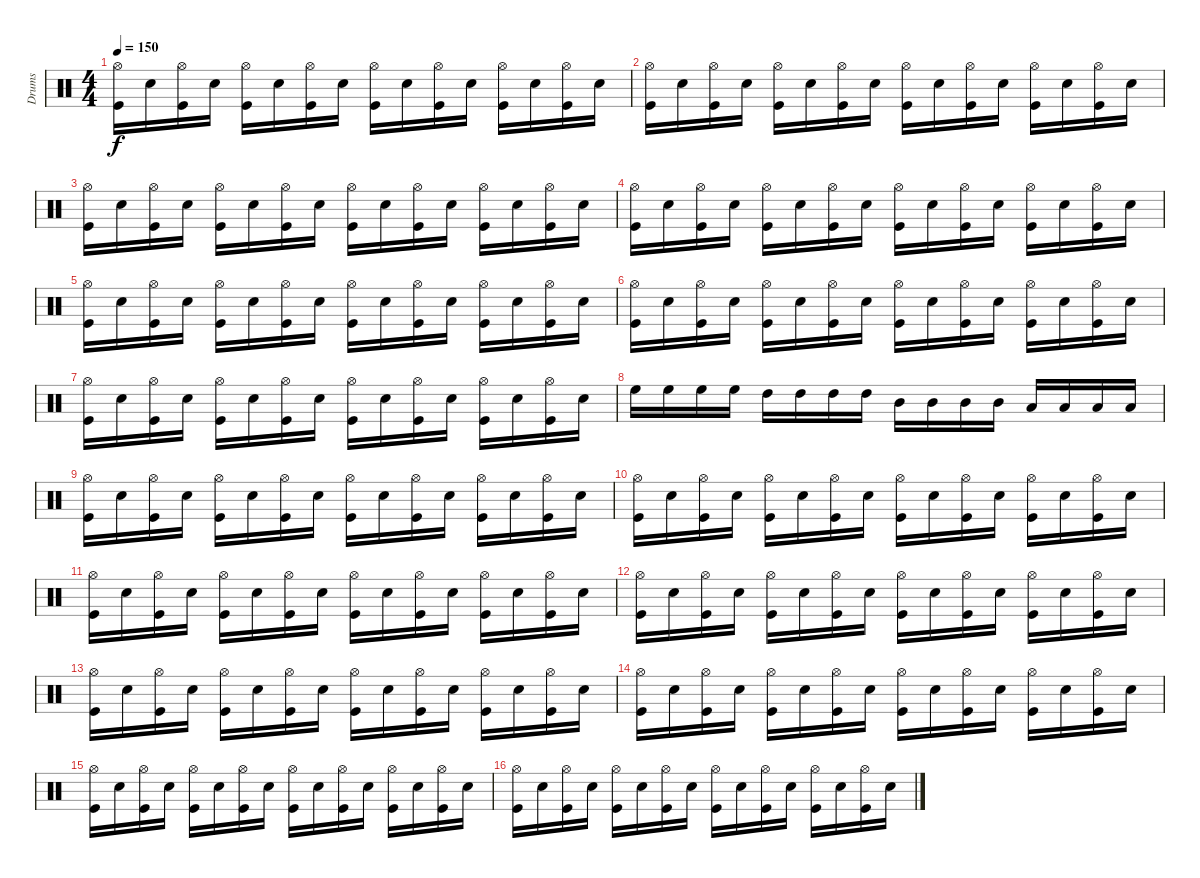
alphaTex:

\track ("Drums" "Drums") {instrument percussion}
\staff {score}
\articulation defaults
\ts (4 4)
\tempo 150
\clef neutral
\ks c
("Hi-Hat (open)" "Kick (hit)").16{dy f} "Snare (hit) 2".16 ("Hi-Hat (open)" "Kick (hit)").16 "Snare (hit) 2".16 ("Hi-Hat (open)" "Kick (hit)").16 "Snare (hit) 2".16 ("Hi-Hat (open)" "Kick (hit)").16 "Snare (hit) 2".16 ("Hi-Hat (open)" "Kick (hit)").16 "Snare (hit) 2".16 ("Hi-Hat (open)" "Kick (hit)").16 "Snare (hit) 2".16 ("Hi-Hat (open)" "Kick (hit)").16 "Snare (hit) 2".16 ("Hi-Hat (open)" "Kick (hit)").16 "Snare (hit) 2".16 |
("Hi-Hat (open)" "Kick (hit)").16 "Snare (hit) 2".16 ("Hi-Hat (open)" "Kick (hit)").16 "Snare (hit) 2".16 ("Hi-Hat (open)" "Kick (hit)").16 "Snare (hit) 2".16 ("Hi-Hat (open)" "Kick (hit)").16 "Snare (hit) 2".16 ("Hi-Hat (open)" "Kick (hit)").16 "Snare (hit) 2".16 ("Hi-Hat (open)" "Kick (hit)").16 "Snare (hit) 2".16 ("Hi-Hat (open)" "Kick (hit)").16 "Snare (hit) 2".16 ("Hi-Hat (open)" "Kick (hit)").16 "Snare (hit) 2".16 |
("Hi-Hat (open)" "Kick (hit)").16 "Snare (hit) 2".16 ("Hi-Hat (open)" "Kick (hit)").16 "Snare (hit) 2".16 ("Hi-Hat (open)" "Kick (hit)").16 "Snare (hit) 2".16 ("Hi-Hat (open)" "Kick (hit)").16 "Snare (hit) 2".16 ("Hi-Hat (open)" "Kick (hit)").16 "Snare (hit) 2".16 ("Hi-Hat (open)" "Kick (hit)").16 "Snare (hit) 2".16 ("Hi-Hat (open)" "Kick (hit)").16 "Snare (hit) 2".16 ("Hi-Hat (open)" "Kick (hit)").16 "Snare (hit) 2".16 |
("Hi-Hat (open)" "Kick (hit)").16 "Snare (hit) 2".16 ("Hi-Hat (open)" "Kick (hit)").16 "Snare (hit) 2".16 ("Hi-Hat (open)" "Kick (hit)").16 "Snare (hit) 2".16 ("Hi-Hat (open)" "Kick (hit)").16 "Snare (hit) 2".16 ("Hi-Hat (open)" "Kick (hit)").16 "Snare (hit) 2".16 ("Hi-Hat (open)" "Kick (hit)").16 "Snare (hit) 2".16 ("Hi-Hat (open)" "Kick (hit)").16 "Snare (hit) 2".16 ("Hi-Hat (open)" "Kick (hit)").16 "Snare (hit) 2".16 |
("Hi-Hat (open)" "Kick (hit)").16 "Snare (hit) 2".16 ("Hi-Hat (open)" "Kick (hit)").16 "Snare (hit) 2".16 ("Hi-Hat (open)" "Kick (hit)").16 "Snare (hit) 2".16 ("Hi-Hat (open)" "Kick (hit)").16 "Snare (hit) 2".16 ("Hi-Hat (open)" "Kick (hit)").16 "Snare (hit) 2".16 ("Hi-Hat (open)" "Kick (hit)").16 "Snare (hit) 2".16 ("Hi-Hat (open)" "Kick (hit)").16 "Snare (hit) 2".16 ("Hi-Hat (open)" "Kick (hit)").16 "Snare (hit) 2".16 |
("Hi-Hat (open)" "Kick (hit)").16 "Snare (hit) 2".16 ("Hi-Hat (open)" "Kick (hit)").16 "Snare (hit) 2".16 ("Hi-Hat (open)" "Kick (hit)").16 "Snare (hit) 2".16 ("Hi-Hat (open)" "Kick (hit)").16 "Snare (hit) 2".16 ("Hi-Hat (open)" "Kick (hit)").16 "Snare (hit) 2".16 ("Hi-Hat (open)" "Kick (hit)").16 "Snare (hit) 2".16 ("Hi-Hat (open)" "Kick (hit)").16 "Snare (hit) 2".16 ("Hi-Hat (open)" "Kick (hit)").16 "Snare (hit) 2".16 |
("Hi-Hat (open)" "Kick (hit)").16 "Snare (hit) 2".16 ("Hi-Hat (open)" "Kick (hit)").16 "Snare (hit) 2".16 ("Hi-Hat (open)" "Kick (hit)").16 "Snare (hit) 2".16 ("Hi-Hat (open)" "Kick (hit)").16 "Snare (hit) 2".16 ("Hi-Hat (open)" "Kick (hit)").16 "Snare (hit) 2".16 ("Hi-Hat (open)" "Kick (hit)").16 "Snare (hit) 2".16 ("Hi-Hat (open)" "Kick (hit)").16 "Snare (hit) 2".16 ("Hi-Hat (open)" "Kick (hit)").16 "Snare (hit) 2".16 |
"High Floor Tom (hit)".16 "High Floor Tom (hit)".16 "High Floor Tom (hit)".16 "High Floor Tom (hit)".16 "High Tom (hit)".16 "High Tom (hit)".16 "High Tom (hit)".16 "High Tom (hit)".16 "Mid Tom (hit)".16 "Mid Tom (hit)".16 "Mid Tom (hit)".16 "Mid Tom (hit)".16 "Low Tom (hit)".16 "Low Tom (hit)".16 "Low Tom (hit)".16 "Low Tom (hit)".16 |
("Hi-Hat (open)" "Kick (hit)").16 "Snare (hit) 2".16 ("Hi-Hat (open)" "Kick (hit)").16 "Snare (hit) 2".16 ("Hi-Hat (open)" "Kick (hit)").16 "Snare (hit) 2".16 ("Hi-Hat (open)" "Kick (hit)").16 "Snare (hit) 2".16 ("Hi-Hat (open)" "Kick (hit)").16 "Snare (hit) 2".16 ("Hi-Hat (open)" "Kick (hit)").16 "Snare (hit) 2".16 ("Hi-Hat (open)" "Kick (hit)").16 "Snare (hit) 2".16 ("Hi-Hat (open)" "Kick (hit)").16 "Snare (hit) 2".16 |
("Hi-Hat (open)" "Kick (hit)").16 "Snare (hit) 2".16 ("Hi-Hat (open)" "Kick (hit)").16 "Snare (hit) 2".16 ("Hi-Hat (open)" "Kick (hit)").16 "Snare (hit) 2".16 ("Hi-Hat (open)" "Kick (hit)").16 "Snare (hit) 2".16 ("Hi-Hat (open)" "Kick (hit)").16 "Snare (hit) 2".16 ("Hi-Hat (open)" "Kick (hit)").16 "Snare (hit) 2".16 ("Hi-Hat (open)" "Kick (hit)").16 "Snare (hit) 2".16 ("Hi-Hat (open)" "Kick (hit)").16 "Snare (hit) 2".16 |
("Hi-Hat (open)" "Kick (hit)").16 "Snare (hit) 2".16 ("Hi-Hat (open)" "Kick (hit)").16 "Snare (hit) 2".16 ("Hi-Hat (open)" "Kick (hit)").16 "Snare (hit) 2".16 ("Hi-Hat (open)" "Kick (hit)").16 "Snare (hit) 2".16 ("Hi-Hat (open)" "Kick (hit)").16 "Snare (hit) 2".16 ("Hi-Hat (open)" "Kick (hit)").16 "Snare (hit) 2".16 ("Hi-Hat (open)" "Kick (hit)").16 "Snare (hit) 2".16 ("Hi-Hat (open)" "Kick (hit)").16 "Snare (hit) 2".16 |
("Hi-Hat (open)" "Kick (hit)").16 "Snare (hit) 2".16 ("Hi-Hat (open)" "Kick (hit)").16 "Snare (hit) 2".16 ("Hi-Hat (open)" "Kick (hit)").16 "Snare (hit) 2".16 ("Hi-Hat (open)" "Kick (hit)").16 "Snare (hit) 2".16 ("Hi-Hat (open)" "Kick (hit)").16 "Snare (hit) 2".16 ("Hi-Hat (open)" "Kick (hit)").16 "Snare (hit) 2".16 ("Hi-Hat (open)" "Kick (hit)").16 "Snare (hit) 2".16 ("Hi-Hat (open)" "Kick (hit)").16 "Snare (hit) 2".16 |
("Hi-Hat (open)" "Kick (hit)").16 "Snare (hit) 2".16 ("Hi-Hat (open)" "Kick (hit)").16 "Snare (hit) 2".16 ("Hi-Hat (open)" "Kick (hit)").16 "Snare (hit) 2".16 ("Hi-Hat (open)" "Kick (hit)").16 "Snare (hit) 2".16 ("Hi-Hat (open)" "Kick (hit)").16 "Snare (hit) 2".16 ("Hi-Hat (open)" "Kick (hit)").16 "Snare (hit) 2".16 ("Hi-Hat (open)" "Kick (hit)").16 "Snare (hit) 2".16 ("Hi-Hat (open)" "Kick (hit)").16 "Snare (hit) 2".16 |
("Hi-Hat (open)" "Kick (hit)").16 "Snare (hit) 2".16 ("Hi-Hat (open)" "Kick (hit)").16 "Snare (hit) 2".16 ("Hi-Hat (open)" "Kick (hit)").16 "Snare (hit) 2".16 ("Hi-Hat (open)" "Kick (hit)").16 "Snare (hit) 2".16 ("Hi-Hat (open)" "Kick (hit)").16 "Snare (hit) 2".16 ("Hi-Hat (open)" "Kick (hit)").16 "Snare (hit) 2".16 ("Hi-Hat (open)" "Kick (hit)").16 "Snare (hit) 2".16 ("Hi-Hat (open)" "Kick (hit)").16 "Snare (hit) 2".16 |
("Hi-Hat (open)" "Kick (hit)").16 "Snare (hit) 2".16 ("Hi-Hat (open)" "Kick (hit)").16 "Snare (hit) 2".16 ("Hi-Hat (open)" "Kick (hit)").16 "Snare (hit) 2".16 ("Hi-Hat (open)" "Kick (hit)").16 "Snare (hit) 2".16 ("Hi-Hat (open)" "Kick (hit)").16 "Snare (hit) 2".16 ("Hi-Hat (open)" "Kick (hit)").16 "Snare (hit) 2".16 ("Hi-Hat (open)" "Kick (hit)").16 "Snare (hit) 2".16 ("Hi-Hat (open)" "Kick (hit)").16 "Snare (hit) 2".16 |
("Hi-Hat (open)" "Kick (hit)").16 "Snare (hit) 2".16 ("Hi-Hat (open)" "Kick (hit)").16 "Snare (hit) 2".16 ("Hi-Hat (open)" "Kick (hit)").16 "Snare (hit) 2".16 ("Hi-Hat (open)" "Kick (hit)").16 "Snare (hit) 2".16 ("Hi-Hat (open)" "Kick (hit)").16 "Snare (hit) 2".16 ("Hi-Hat (open)" "Kick (hit)").16 "Snare (hit) 2".16 ("Hi-Hat (open)" "Kick (hit)").16 "Snare (hit) 2".16 ("Hi-Hat (open)" "Kick (hit)").16 "Snare (hit) 2".16
